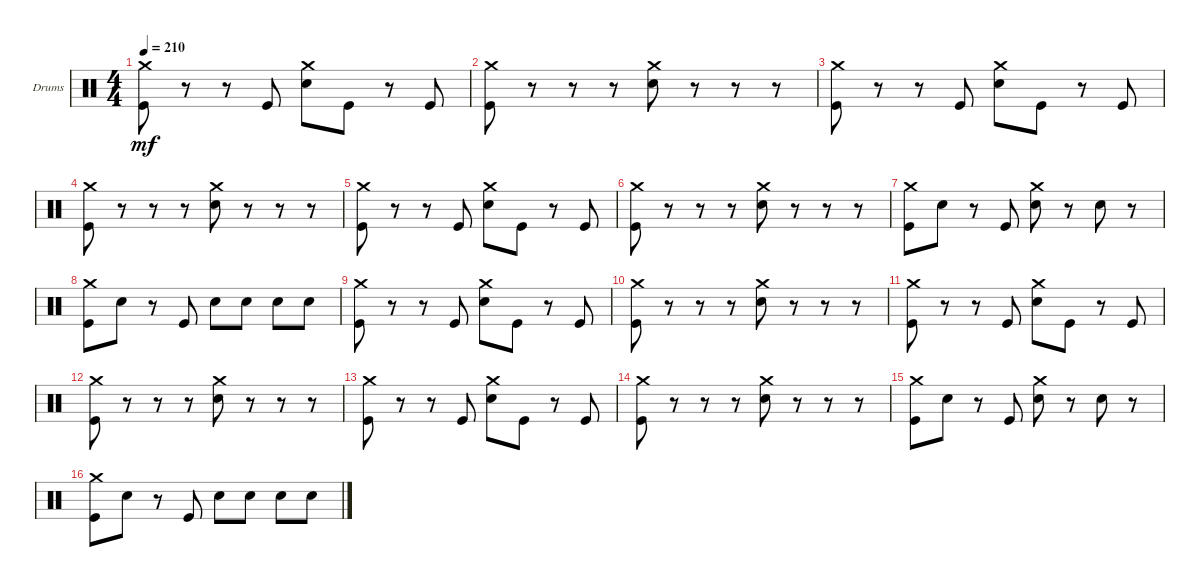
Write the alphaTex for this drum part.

\defaultSystemsLayout 4
\bracketExtendMode groupsimilarinstruments
\firstSystemTrackNameOrientation horizontal
\otherSystemsTrackNameOrientation horizontal
\track ("Dan Johnson (Drums)" "Drums") {instrument percussion}
\staff {score}
\articulation defaults
\ts (4 4)
\tempo 210
\clef neutral
\ks c
("Kick (hit)" "Crash medium (hit)").8{dy mf} r.8 r.8 "Kick (hit)".8 ("Snare (hit) 2" "Crash medium (hit)").8 "Kick (hit)".8 r.8 "Kick (hit)".8 |
("Kick (hit)" "Crash medium (hit)").8 r.8 r.8 r.8 ("Snare (hit) 2" "Crash medium (hit)").8 r.8 r.8 r.8 |
("Kick (hit)" "Crash medium (hit)").8 r.8 r.8 "Kick (hit)".8 ("Snare (hit) 2" "Crash medium (hit)").8 "Kick (hit)".8 r.8 "Kick (hit)".8 |
("Kick (hit)" "Crash medium (hit)").8 r.8 r.8 r.8 ("Snare (hit) 2" "Crash medium (hit)").8 r.8 r.8 r.8 |
("Kick (hit)" "Crash medium (hit)").8 r.8 r.8 "Kick (hit)".8 ("Snare (hit) 2" "Crash medium (hit)").8 "Kick (hit)".8 r.8 "Kick (hit)".8 |
("Kick (hit)" "Crash medium (hit)").8 r.8 r.8 r.8 ("Snare (hit) 2" "Crash medium (hit)").8 r.8 r.8 r.8 |
("Kick (hit)" "Crash medium (hit)").8 "Snare (hit) 2".8 r.8 "Kick (hit)".8 ("Snare (hit) 2" "Crash medium (hit)").8 r.8 "Snare (hit) 2".8 r.8 |
("Kick (hit)" "Crash medium (hit)").8 "Snare (hit) 2".8 r.8 "Kick (hit)".8 "Snare (hit) 2".8 "Snare (hit) 2".8 "Snare (hit) 2".8 "Snare (hit) 2".8 |
("Kick (hit)" "Crash medium (hit)").8 r.8 r.8 "Kick (hit)".8 ("Snare (hit) 2" "Crash medium (hit)").8 "Kick (hit)".8 r.8 "Kick (hit)".8 |
("Kick (hit)" "Crash medium (hit)").8 r.8 r.8 r.8 ("Snare (hit) 2" "Crash medium (hit)").8 r.8 r.8 r.8 |
("Kick (hit)" "Crash medium (hit)").8 r.8 r.8 "Kick (hit)".8 ("Snare (hit) 2" "Crash medium (hit)").8 "Kick (hit)".8 r.8 "Kick (hit)".8 |
("Kick (hit)" "Crash medium (hit)").8 r.8 r.8 r.8 ("Snare (hit) 2" "Crash medium (hit)").8 r.8 r.8 r.8 |
("Kick (hit)" "Crash medium (hit)").8 r.8 r.8 "Kick (hit)".8 ("Snare (hit) 2" "Crash medium (hit)").8 "Kick (hit)".8 r.8 "Kick (hit)".8 |
("Kick (hit)" "Crash medium (hit)").8 r.8 r.8 r.8 ("Snare (hit) 2" "Crash medium (hit)").8 r.8 r.8 r.8 |
("Kick (hit)" "Crash medium (hit)").8 "Snare (hit) 2".8 r.8 "Kick (hit)".8 ("Snare (hit) 2" "Crash medium (hit)").8 r.8 "Snare (hit) 2".8 r.8 |
("Kick (hit)" "Crash medium (hit)").8 "Snare (hit) 2".8 r.8 "Kick (hit)".8 "Snare (hit) 2".8 "Snare (hit) 2".8 "Snare (hit) 2".8 "Snare (hit) 2".8
